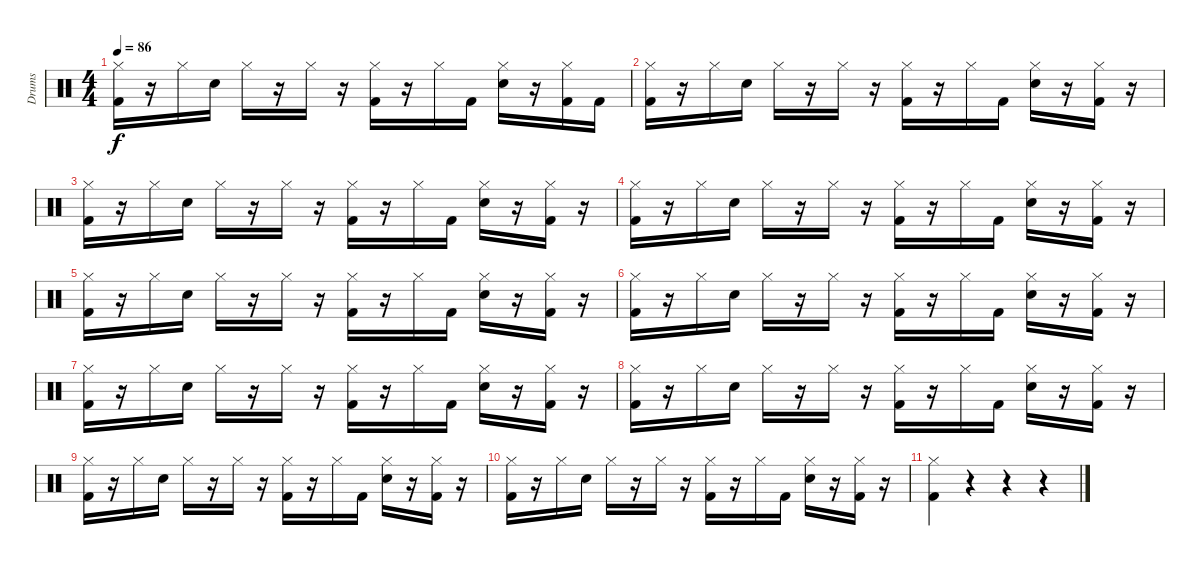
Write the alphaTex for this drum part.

\track ("Drums" "Drums") {instrument percussion}
\staff {score}
\articulation defaults
\ts (4 4)
\tempo 86
\clef neutral
\ks c
("Hi-Hat (closed)" "Kick (hit) 2").16{dy f} r.16 "Hi-Hat (closed)".16 "Electric Snare (hit)".16 "Hi-Hat (closed)".16 r.16 "Hi-Hat (closed)".16 r.16 ("Hi-Hat (closed)" "Kick (hit) 2").16 r.16 "Hi-Hat (closed)".16 "Kick (hit) 2".16 ("Hi-Hat (closed)" "Electric Snare (hit)").16 r.16 ("Hi-Hat (closed)" "Kick (hit) 2").16 "Kick (hit) 2".16 |
("Hi-Hat (closed)" "Kick (hit) 2").16 r.16 "Hi-Hat (closed)".16 "Electric Snare (hit)".16 "Hi-Hat (closed)".16 r.16 "Hi-Hat (closed)".16 r.16 ("Hi-Hat (closed)" "Kick (hit) 2").16 r.16 "Hi-Hat (closed)".16 "Kick (hit) 2".16 ("Hi-Hat (closed)" "Electric Snare (hit)").16 r.16 ("Hi-Hat (closed)" "Kick (hit) 2").16 r.16 |
("Hi-Hat (closed)" "Kick (hit) 2").16 r.16 "Hi-Hat (closed)".16 "Electric Snare (hit)".16 "Hi-Hat (closed)".16 r.16 "Hi-Hat (closed)".16 r.16 ("Hi-Hat (closed)" "Kick (hit) 2").16 r.16 "Hi-Hat (closed)".16 "Kick (hit) 2".16 ("Hi-Hat (closed)" "Electric Snare (hit)").16 r.16 ("Hi-Hat (closed)" "Kick (hit) 2").16 r.16 |
("Hi-Hat (closed)" "Kick (hit) 2").16 r.16 "Hi-Hat (closed)".16 "Electric Snare (hit)".16 "Hi-Hat (closed)".16 r.16 "Hi-Hat (closed)".16 r.16 ("Hi-Hat (closed)" "Kick (hit) 2").16 r.16 "Hi-Hat (closed)".16 "Kick (hit) 2".16 ("Hi-Hat (closed)" "Electric Snare (hit)").16 r.16 ("Hi-Hat (closed)" "Kick (hit) 2").16 r.16 |
("Hi-Hat (closed)" "Kick (hit) 2").16 r.16 "Hi-Hat (closed)".16 "Electric Snare (hit)".16 "Hi-Hat (closed)".16 r.16 "Hi-Hat (closed)".16 r.16 ("Hi-Hat (closed)" "Kick (hit) 2").16 r.16 "Hi-Hat (closed)".16 "Kick (hit) 2".16 ("Hi-Hat (closed)" "Electric Snare (hit)").16 r.16 ("Hi-Hat (closed)" "Kick (hit) 2").16 r.16 |
("Hi-Hat (closed)" "Kick (hit) 2").16 r.16 "Hi-Hat (closed)".16 "Electric Snare (hit)".16 "Hi-Hat (closed)".16 r.16 "Hi-Hat (closed)".16 r.16 ("Hi-Hat (closed)" "Kick (hit) 2").16 r.16 "Hi-Hat (closed)".16 "Kick (hit) 2".16 ("Hi-Hat (closed)" "Electric Snare (hit)").16 r.16 ("Hi-Hat (closed)" "Kick (hit) 2").16 r.16 |
("Hi-Hat (closed)" "Kick (hit) 2").16 r.16 "Hi-Hat (closed)".16 "Electric Snare (hit)".16 "Hi-Hat (closed)".16 r.16 "Hi-Hat (closed)".16 r.16 ("Hi-Hat (closed)" "Kick (hit) 2").16 r.16 "Hi-Hat (closed)".16 "Kick (hit) 2".16 ("Hi-Hat (closed)" "Electric Snare (hit)").16 r.16 ("Hi-Hat (closed)" "Kick (hit) 2").16 r.16 |
("Hi-Hat (closed)" "Kick (hit) 2").16 r.16 "Hi-Hat (closed)".16 "Electric Snare (hit)".16 "Hi-Hat (closed)".16 r.16 "Hi-Hat (closed)".16 r.16 ("Hi-Hat (closed)" "Kick (hit) 2").16 r.16 "Hi-Hat (closed)".16 "Kick (hit) 2".16 ("Hi-Hat (closed)" "Electric Snare (hit)").16 r.16 ("Hi-Hat (closed)" "Kick (hit) 2").16 r.16 |
("Hi-Hat (closed)" "Kick (hit) 2").16 r.16 "Hi-Hat (closed)".16 "Electric Snare (hit)".16 "Hi-Hat (closed)".16 r.16 "Hi-Hat (closed)".16 r.16 ("Hi-Hat (closed)" "Kick (hit) 2").16 r.16 "Hi-Hat (closed)".16 "Kick (hit) 2".16 ("Hi-Hat (closed)" "Electric Snare (hit)").16 r.16 ("Hi-Hat (closed)" "Kick (hit) 2").16 r.16 |
("Hi-Hat (closed)" "Kick (hit) 2").16 r.16 "Hi-Hat (closed)".16 "Electric Snare (hit)".16 "Hi-Hat (closed)".16 r.16 "Hi-Hat (closed)".16 r.16 ("Hi-Hat (closed)" "Kick (hit) 2").16 r.16 "Hi-Hat (closed)".16 "Kick (hit) 2".16 ("Hi-Hat (closed)" "Electric Snare (hit)").16 r.16 ("Hi-Hat (closed)" "Kick (hit) 2").16 r.16 |
("Hi-Hat (closed)" "Kick (hit) 2").4 r.4 r.4 r.4
